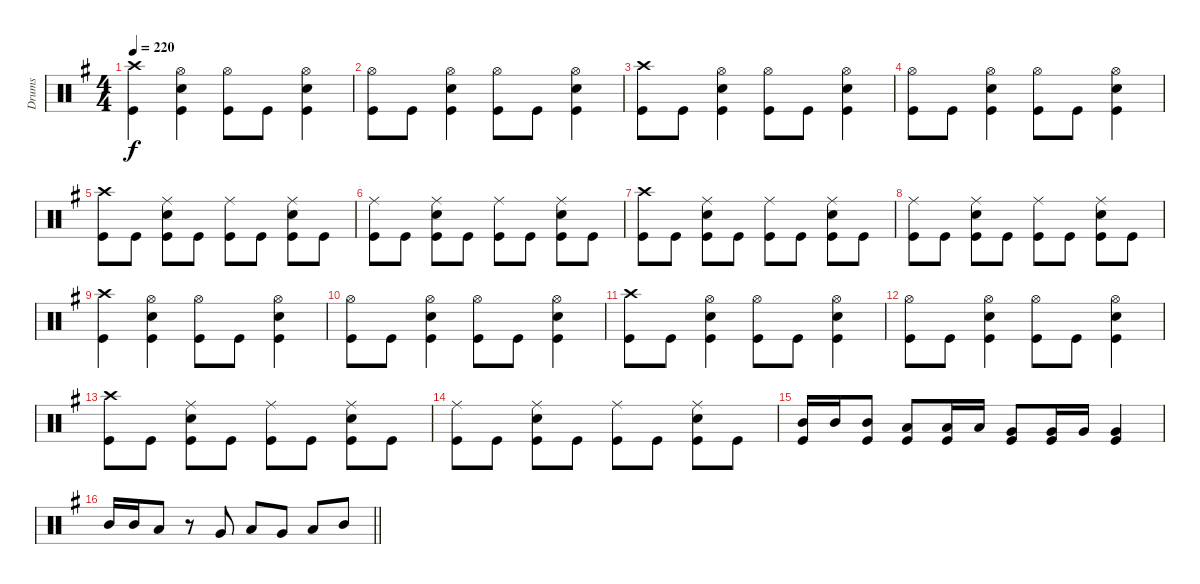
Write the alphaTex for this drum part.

\track ("Drums" "Drums") {instrument percussion}
\staff {score}
\articulation defaults
\ts (4 4)
\tempo 220
\clef neutral
\ks eminor
("Kick (hit)" "Crash high (hit)").4{dy f} ("Snare (hit) 2" "Kick (hit)" "Hi-Hat (open)").4 ("Kick (hit)" "Hi-Hat (open)").8 "Kick (hit)".8 ("Kick (hit)" "Snare (hit) 2" "Hi-Hat (open)").4 |
("Kick (hit)" "Hi-Hat (open)").8 "Kick (hit)".8 ("Kick (hit)" "Snare (hit) 2" "Hi-Hat (open)").4 ("Kick (hit)" "Hi-Hat (open)").8 "Kick (hit)".8 ("Kick (hit)" "Snare (hit) 2" "Hi-Hat (open)").4 |
("Kick (hit)" "Crash high (hit)").8 "Kick (hit)".8 ("Snare (hit) 2" "Kick (hit)" "Hi-Hat (open)").4 ("Kick (hit)" "Hi-Hat (open)").8 "Kick (hit)".8 ("Kick (hit)" "Snare (hit) 2" "Hi-Hat (open)").4 |
("Kick (hit)" "Hi-Hat (open)").8 "Kick (hit)".8 ("Kick (hit)" "Snare (hit) 2" "Hi-Hat (open)").4 ("Kick (hit)" "Hi-Hat (open)").8 "Kick (hit)".8 ("Kick (hit)" "Snare (hit) 2" "Hi-Hat (open)").4 |
("Kick (hit)" "Crash high (hit)").8 "Kick (hit)".8 ("Snare (hit) 2" "Kick (hit)" "Ride (middle)").8 "Kick (hit)".8 ("Kick (hit)" "Ride (middle)").8 "Kick (hit)".8 ("Kick (hit)" "Snare (hit) 2" "Ride (middle)").8 "Kick (hit)".8 |
("Kick (hit)" "Ride (middle)").8 "Kick (hit)".8 ("Kick (hit)" "Snare (hit) 2" "Ride (middle)").8 "Kick (hit)".8 ("Kick (hit)" "Ride (middle)").8 "Kick (hit)".8 ("Kick (hit)" "Snare (hit) 2" "Ride (middle)").8 "Kick (hit)".8 |
("Kick (hit)" "Crash high (hit)").8 "Kick (hit)".8 ("Snare (hit) 2" "Kick (hit)" "Ride (middle)").8 "Kick (hit)".8 ("Kick (hit)" "Ride (middle)").8 "Kick (hit)".8 ("Kick (hit)" "Snare (hit) 2" "Ride (middle)").8 "Kick (hit)".8 |
("Kick (hit)" "Ride (middle)").8 "Kick (hit)".8 ("Kick (hit)" "Snare (hit) 2" "Ride (middle)").8 "Kick (hit)".8 ("Kick (hit)" "Ride (middle)").8 "Kick (hit)".8 ("Kick (hit)" "Snare (hit) 2" "Ride (middle)").8 "Kick (hit)".8 |
("Kick (hit)" "Crash high (hit)").4 ("Snare (hit) 2" "Kick (hit)" "Hi-Hat (open)").4 ("Kick (hit)" "Hi-Hat (open)").8 "Kick (hit)".8 ("Kick (hit)" "Snare (hit) 2" "Hi-Hat (open)").4 |
("Kick (hit)" "Hi-Hat (open)").8 "Kick (hit)".8 ("Kick (hit)" "Snare (hit) 2" "Hi-Hat (open)").4 ("Kick (hit)" "Hi-Hat (open)").8 "Kick (hit)".8 ("Kick (hit)" "Snare (hit) 2" "Hi-Hat (open)").4 |
("Kick (hit)" "Crash high (hit)").8 "Kick (hit)".8 ("Snare (hit) 2" "Kick (hit)" "Hi-Hat (open)").4 ("Kick (hit)" "Hi-Hat (open)").8 "Kick (hit)".8 ("Kick (hit)" "Snare (hit) 2" "Hi-Hat (open)").4 |
("Kick (hit)" "Hi-Hat (open)").8 "Kick (hit)".8 ("Kick (hit)" "Snare (hit) 2" "Hi-Hat (open)").4 ("Kick (hit)" "Hi-Hat (open)").8 "Kick (hit)".8 ("Kick (hit)" "Snare (hit) 2" "Hi-Hat (open)").4 |
("Kick (hit)" "Crash high (hit)").8 "Kick (hit)".8 ("Snare (hit) 2" "Kick (hit)" "Ride (middle)").8 "Kick (hit)".8 ("Kick (hit)" "Ride (middle)").8 "Kick (hit)".8 ("Kick (hit)" "Snare (hit) 2" "Ride (middle)").8 "Kick (hit)".8 |
("Kick (hit)" "Ride (middle)").8 "Kick (hit)".8 ("Kick (hit)" "Snare (hit) 2" "Ride (middle)").8 "Kick (hit)".8 ("Kick (hit)" "Ride (middle)").8 "Kick (hit)".8 ("Kick (hit)" "Snare (hit) 2" "Ride (middle)").8 "Kick (hit)".8 |
("Mid Tom (hit)" "Kick (hit)").16 "Mid Tom (hit)".16 ("Mid Tom (hit)" "Kick (hit)").8 ("Low Tom (hit)" "Kick (hit)").8 ("Low Tom (hit)" "Kick (hit)").16 "Low Tom (hit)".16 ("Kick (hit)" "Very Low Tom (hit)").8 ("Very Low Tom (hit)" "Kick (hit)").16 "Very Low Tom (hit)".16 ("Very Low Tom (hit)" "Kick (hit)").4 |
\barLineRight lightlight "Mid Tom (hit)".16 "Mid Tom (hit)".16 "Low Tom (hit)".8
r.8 "Very Low Tom (hit)".8 "Low Floor Tom (hit)".8 "Very Low Tom (hit)".8 "Low Tom (hit)".8 "Mid Tom (hit)".8
